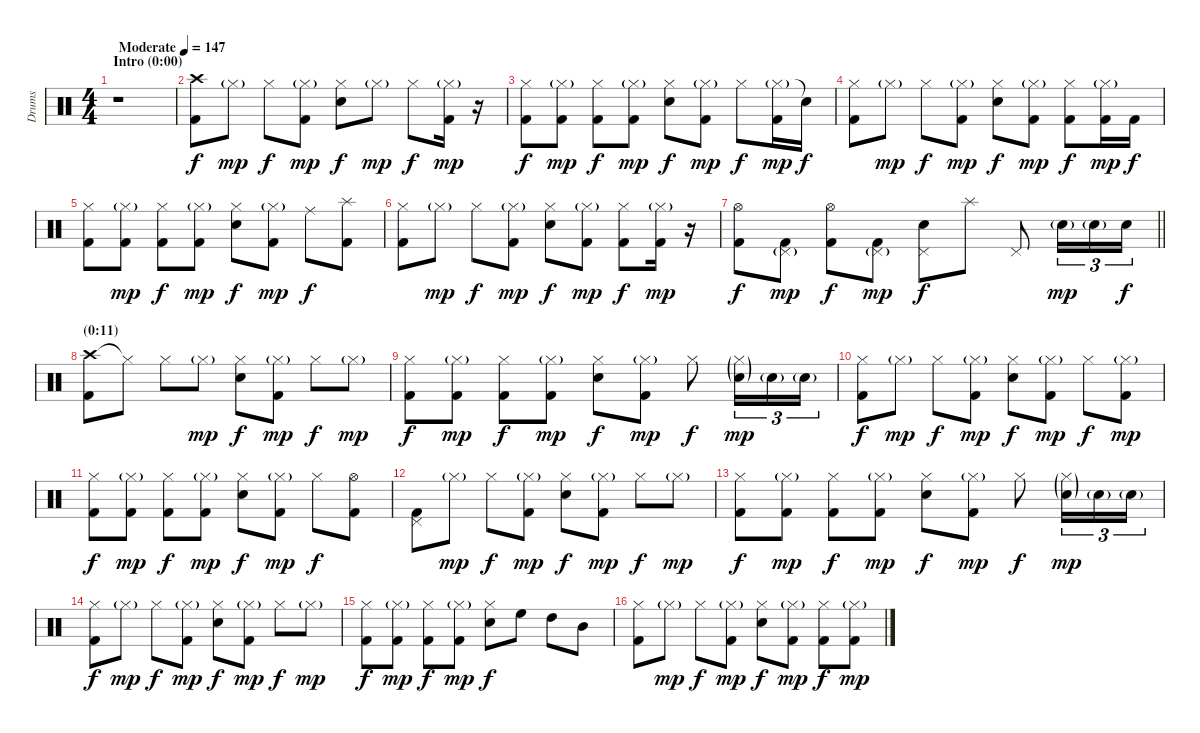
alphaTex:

\track ("Drums" "Drums") {instrument percussion}
\staff {score}
\articulation defaults
\ts (4 4)
\section ("" "Intro (0:00)")
\tempo (147 "Moderate")
\clef neutral
\ks c
r.1{dy f} |
("Crash high (hit)" "Kick (hit) 2").8 "Hi-Hat (closed)"{g}.8{dy mp} "Hi-Hat (closed)".8{dy f} ("Hi-Hat (closed)"{g} "Kick (hit) 2").8{dy mp} ("Hi-Hat (closed)" "Snare (hit) 2").8{dy f} "Hi-Hat (closed)"{g}.8{dy mp} "Hi-Hat (closed)".8{dy f} ("Hi-Hat (closed)"{g} "Kick (hit) 2").16{dy mp} r.16 |
("Hi-Hat (closed)" "Kick (hit) 2").8{dy f} ("Hi-Hat (closed)"{g} "Kick (hit) 2").8{dy mp} ("Hi-Hat (closed)" "Kick (hit) 2").8{dy f} ("Hi-Hat (closed)"{g} "Kick (hit) 2").8{dy mp} ("Hi-Hat (closed)" "Snare (hit) 2").8{dy f} ("Hi-Hat (closed)"{g} "Kick (hit) 2").8{dy mp} "Hi-Hat (closed)".8{dy f} ("Hi-Hat (closed)"{g} "Kick (hit) 2").16{dy mp} "Snare (hit)"{t}.16{dy f} |
("Hi-Hat (closed)" "Kick (hit) 2").8 "Hi-Hat (closed)"{g}.8{dy mp} "Hi-Hat (closed)".8{dy f} ("Hi-Hat (closed)"{g} "Kick (hit) 2").8{dy mp} ("Hi-Hat (closed)" "Snare (hit) 2").8{dy f} ("Hi-Hat (closed)"{g} "Kick (hit) 2").8{dy mp} ("Hi-Hat (closed)" "Kick (hit) 2").8{dy f} ("Hi-Hat (closed)"{g} "Kick (hit) 2").16{dy mp} "Kick (hit) 2".16{dy f} |
("Hi-Hat (closed)" "Kick (hit) 2").8 ("Hi-Hat (closed)"{g} "Kick (hit) 2").8{dy mp} ("Hi-Hat (closed)" "Kick (hit) 2").8{dy f} ("Hi-Hat (closed)"{g} "Kick (hit) 2").8{dy mp} ("Hi-Hat (closed)" "Snare (hit) 2").8{dy f} ("Hi-Hat (closed)"{g} "Kick (hit) 2").8{dy mp} "Ride (middle)".8{dy f} ("Splash (hit)" "Kick (hit) 2").8 |
("Hi-Hat (closed)" "Kick (hit) 2").8 "Hi-Hat (closed)"{g}.8{dy mp} "Hi-Hat (closed)".8{dy f} ("Hi-Hat (closed)"{g} "Kick (hit) 2").8{dy mp} ("Hi-Hat (closed)" "Snare (hit) 2").8{dy f} ("Hi-Hat (closed)"{g} "Kick (hit) 2").8{dy mp} ("Hi-Hat (closed)" "Kick (hit) 2").8{dy f} ("Hi-Hat (closed)"{g} "Kick (hit) 2").16{dy mp} r.16 |
\barLineRight lightlight
("Hi-Hat (open)" "Kick (hit) 2").8{dy f} ("Pedal Hi-Hat (hit)"{g} "Kick (hit) 2").8{dy mp} ("Hi-Hat (open)" "Kick (hit) 2").8{dy f} ("Pedal Hi-Hat (hit)"{g} "Kick (hit) 2").8{dy mp} ("Pedal Hi-Hat (hit)" "Snare (hit) 2").8{dy f} "Splash (hit)".8 "Pedal Hi-Hat (hit)".8 "Snare (hit) 2"{g}.16{tu (3 2) dy mp} "Snare (hit) 2"{g}.16{tu (3 2)} "Snare (hit) 2".16{tu (3 2) dy f} |
\section ("" "(0:11)")
("Crash high (hit)" "Kick (hit) 2").8 "Hi-Hat (closed)"{t}.8 "Hi-Hat (closed)".8 "Hi-Hat (closed)"{g}.8{dy mp} ("Hi-Hat (closed)" "Snare (hit) 2").8{dy f} ("Hi-Hat (closed)"{g} "Kick (hit) 2").8{dy mp} "Hi-Hat (closed)".8{dy f} "Hi-Hat (closed)"{g}.8{dy mp} |
("Hi-Hat (closed)" "Kick (hit) 2").8{dy f} ("Hi-Hat (closed)"{g} "Kick (hit) 2").8{dy mp} ("Hi-Hat (closed)" "Kick (hit) 2").8{dy f} ("Hi-Hat (closed)"{g} "Kick (hit) 2").8{dy mp} ("Hi-Hat (closed)" "Snare (hit) 2").8{dy f} ("Hi-Hat (closed)"{g} "Kick (hit) 2").8{dy mp} "Hi-Hat (closed)".8{dy f} ("Hi-Hat (closed)"{g} "Snare (hit) 2"{g}).16{tu (3 2) dy mp} "Snare (hit) 2"{g}.16{tu (3 2)} "Snare (hit) 2"{g}.16{tu (3 2)} |
("Hi-Hat (closed)" "Kick (hit) 2").8{dy f} "Hi-Hat (closed)"{g}.8{dy mp} "Hi-Hat (closed)".8{dy f} ("Hi-Hat (closed)"{g} "Kick (hit) 2").8{dy mp} ("Hi-Hat (closed)" "Snare (hit) 2").8{dy f} ("Hi-Hat (closed)"{g} "Kick (hit) 2").8{dy mp} "Hi-Hat (closed)".8{dy f} ("Hi-Hat (closed)"{g} "Kick (hit) 2").8{dy mp} |
("Hi-Hat (closed)" "Kick (hit) 2").8{dy f} ("Hi-Hat (closed)"{g} "Kick (hit) 2").8{dy mp} ("Hi-Hat (closed)" "Kick (hit) 2").8{dy f} ("Hi-Hat (closed)"{g} "Kick (hit) 2").8{dy mp} ("Hi-Hat (closed)" "Snare (hit) 2").8{dy f} ("Hi-Hat (closed)"{g} "Kick (hit) 2").8{dy mp} "Hi-Hat (closed)".8{dy f} ("Hi-Hat (open)" "Kick (hit) 2").8 |
("Pedal Hi-Hat (hit)" "Kick (hit) 2").8 "Hi-Hat (closed)"{g}.8{dy mp} "Hi-Hat (closed)".8{dy f} ("Hi-Hat (closed)"{g} "Kick (hit) 2").8{dy mp} ("Hi-Hat (closed)" "Snare (hit) 2").8{dy f} ("Hi-Hat (closed)"{g} "Kick (hit) 2").8{dy mp} "Hi-Hat (closed)".8{dy f} "Hi-Hat (closed)"{g}.8{dy mp} |
("Hi-Hat (closed)" "Kick (hit) 2").8{dy f} ("Hi-Hat (closed)"{g} "Kick (hit) 2").8{dy mp} ("Hi-Hat (closed)" "Kick (hit) 2").8{dy f} ("Hi-Hat (closed)"{g} "Kick (hit) 2").8{dy mp} ("Hi-Hat (closed)" "Snare (hit) 2").8{dy f} ("Hi-Hat (closed)"{g} "Kick (hit) 2").8{dy mp} "Hi-Hat (closed)".8{dy f} ("Hi-Hat (closed)"{g} "Snare (hit) 2"{g}).16{tu (3 2) dy mp} "Snare (hit) 2"{g}.16{tu (3 2)} "Snare (hit) 2"{g}.16{tu (3 2)} |
("Hi-Hat (closed)" "Kick (hit) 2").8{dy f} "Hi-Hat (closed)"{g}.8{dy mp} "Hi-Hat (closed)".8{dy f} ("Hi-Hat (closed)"{g} "Kick (hit) 2").8{dy mp} ("Hi-Hat (closed)" "Snare (hit) 2").8{dy f} ("Hi-Hat (closed)"{g} "Kick (hit) 2").8{dy mp} "Hi-Hat (closed)".8{dy f} "Hi-Hat (closed)"{g}.8{dy mp} |
("Hi-Hat (closed)" "Kick (hit) 2").8{dy f} ("Hi-Hat (closed)"{g} "Kick (hit) 2").8{dy mp} ("Hi-Hat (closed)" "Kick (hit) 2").8{dy f} ("Hi-Hat (closed)"{g} "Kick (hit) 2").8{dy mp} ("Hi-Hat (closed)" "Snare (hit) 2").8{dy f} "High Floor Tom (hit)".8 "High Tom (hit)".8 "Mid Tom (hit)".8 |
("Hi-Hat (closed)" "Kick (hit) 2").8 "Hi-Hat (closed)"{g}.8{dy mp} "Hi-Hat (closed)".8{dy f} ("Hi-Hat (closed)"{g} "Kick (hit) 2").8{dy mp} ("Hi-Hat (closed)" "Snare (hit) 2").8{dy f} ("Hi-Hat (closed)"{g} "Kick (hit) 2").8{dy mp} ("Hi-Hat (closed)" "Kick (hit) 2").8{dy f} ("Hi-Hat (closed)"{g} "Kick (hit) 2").8{dy mp}
